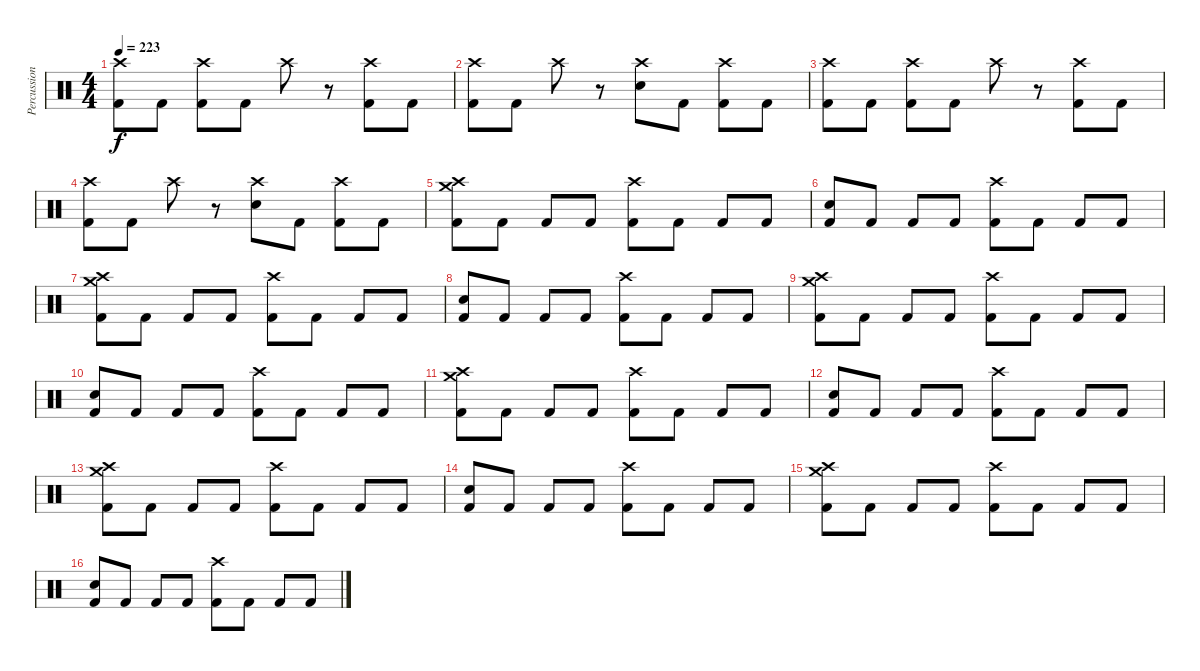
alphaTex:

\track ("Percussion" "Percussion") {instrument percussion}
\staff {score}
\articulation defaults
\ts (4 4)
\tempo 223
\clef neutral
\ks c
("Crash high (hit)" "Kick (hit) 2").8{dy f} "Kick (hit) 2".8 ("Crash high (hit)" "Kick (hit) 2").8 "Kick (hit) 2".8 "Crash high (hit)".8 r.8 ("Crash high (hit)" "Kick (hit) 2").8 "Kick (hit) 2".8 |
("Crash high (hit)" "Kick (hit) 2").8 "Kick (hit) 2".8 "Crash high (hit)".8 r.8 ("Crash high (hit)" "Electric Snare (hit)").8 "Kick (hit) 2".8 ("Crash high (hit)" "Kick (hit) 2").8 "Kick (hit) 2".8 |
("Crash high (hit)" "Kick (hit) 2").8 "Kick (hit) 2".8 ("Crash high (hit)" "Kick (hit) 2").8 "Kick (hit) 2".8 "Crash high (hit)".8 r.8 ("Crash high (hit)" "Kick (hit) 2").8 "Kick (hit) 2".8 |
("Crash high (hit)" "Kick (hit) 2").8 "Kick (hit) 2".8 "Crash high (hit)".8 r.8 ("Crash high (hit)" "Electric Snare (hit)").8 "Kick (hit) 2".8 ("Crash high (hit)" "Kick (hit) 2").8 "Kick (hit) 2".8 |
("Crash high (hit)" "Crash medium (hit)" "Kick (hit) 2").8 "Kick (hit) 2".8 "Kick (hit) 2".8 "Kick (hit) 2".8 ("Crash high (hit)" "Kick (hit) 2").8 "Kick (hit) 2".8 "Kick (hit) 2".8 "Kick (hit) 2".8 |
("Electric Snare (hit)" "Kick (hit) 2").8 "Kick (hit) 2".8 "Kick (hit) 2".8 "Kick (hit) 2".8 ("Crash high (hit)" "Kick (hit) 2").8 "Kick (hit) 2".8 "Kick (hit) 2".8 "Kick (hit) 2".8 |
("Crash high (hit)" "Crash medium (hit)" "Kick (hit) 2").8 "Kick (hit) 2".8 "Kick (hit) 2".8 "Kick (hit) 2".8 ("Crash high (hit)" "Kick (hit) 2").8 "Kick (hit) 2".8 "Kick (hit) 2".8 "Kick (hit) 2".8 |
("Electric Snare (hit)" "Kick (hit) 2").8 "Kick (hit) 2".8 "Kick (hit) 2".8 "Kick (hit) 2".8 ("Crash high (hit)" "Kick (hit) 2").8 "Kick (hit) 2".8 "Kick (hit) 2".8 "Kick (hit) 2".8 |
("Crash high (hit)" "Crash medium (hit)" "Kick (hit) 2").8 "Kick (hit) 2".8 "Kick (hit) 2".8 "Kick (hit) 2".8 ("Crash high (hit)" "Kick (hit) 2").8 "Kick (hit) 2".8 "Kick (hit) 2".8 "Kick (hit) 2".8 |
("Electric Snare (hit)" "Kick (hit) 2").8 "Kick (hit) 2".8 "Kick (hit) 2".8 "Kick (hit) 2".8 ("Crash high (hit)" "Kick (hit) 2").8 "Kick (hit) 2".8 "Kick (hit) 2".8 "Kick (hit) 2".8 |
("Crash high (hit)" "Crash medium (hit)" "Kick (hit) 2").8 "Kick (hit) 2".8 "Kick (hit) 2".8 "Kick (hit) 2".8 ("Crash high (hit)" "Kick (hit) 2").8 "Kick (hit) 2".8 "Kick (hit) 2".8 "Kick (hit) 2".8 |
("Electric Snare (hit)" "Kick (hit) 2").8 "Kick (hit) 2".8 "Kick (hit) 2".8 "Kick (hit) 2".8 ("Crash high (hit)" "Kick (hit) 2").8 "Kick (hit) 2".8 "Kick (hit) 2".8 "Kick (hit) 2".8 |
("Crash high (hit)" "Crash medium (hit)" "Kick (hit) 2").8 "Kick (hit) 2".8 "Kick (hit) 2".8 "Kick (hit) 2".8 ("Crash high (hit)" "Kick (hit) 2").8 "Kick (hit) 2".8 "Kick (hit) 2".8 "Kick (hit) 2".8 |
("Electric Snare (hit)" "Kick (hit) 2").8 "Kick (hit) 2".8 "Kick (hit) 2".8 "Kick (hit) 2".8 ("Crash high (hit)" "Kick (hit) 2").8 "Kick (hit) 2".8 "Kick (hit) 2".8 "Kick (hit) 2".8 |
("Crash high (hit)" "Crash medium (hit)" "Kick (hit) 2").8 "Kick (hit) 2".8 "Kick (hit) 2".8 "Kick (hit) 2".8 ("Crash high (hit)" "Kick (hit) 2").8 "Kick (hit) 2".8 "Kick (hit) 2".8 "Kick (hit) 2".8 |
("Electric Snare (hit)" "Kick (hit) 2").8 "Kick (hit) 2".8 "Kick (hit) 2".8 "Kick (hit) 2".8 ("Crash high (hit)" "Kick (hit) 2").8 "Kick (hit) 2".8 "Kick (hit) 2".8 "Kick (hit) 2".8
